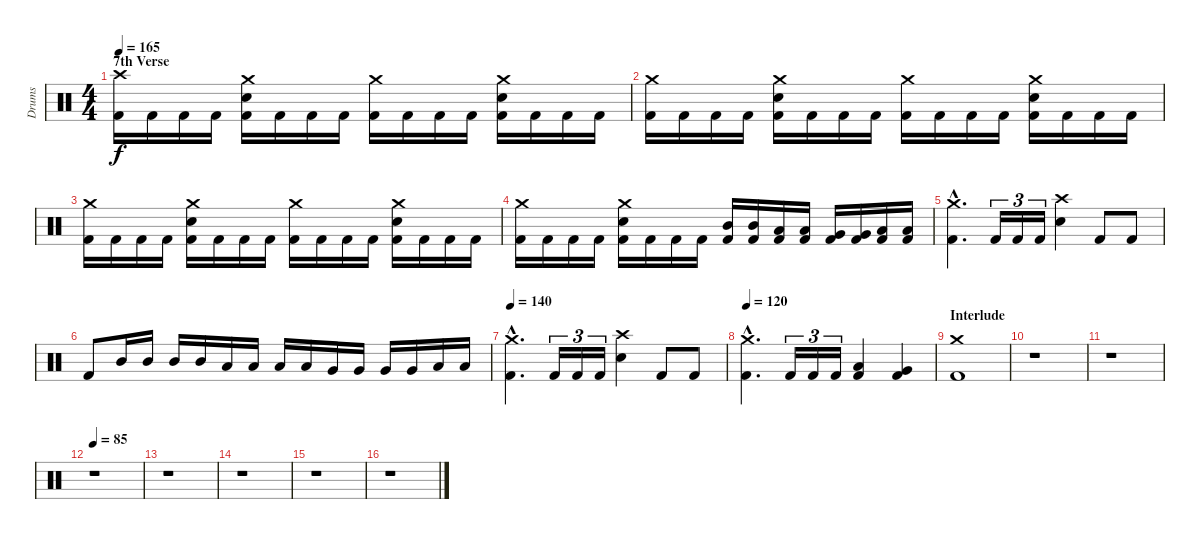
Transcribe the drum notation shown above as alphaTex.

\track ("Drums" "Drums") {instrument percussion}
\staff {score}
\articulation defaults
\ts (4 4)
\section ("" "7th Verse")
\tempo 165
\clef neutral
\ks c
("Kick (hit) 2" "Crash high (hit)").16{dy f} "Kick (hit) 2".16 "Kick (hit) 2".16 "Kick (hit) 2".16 ("Kick (hit) 2" "Electric Snare (hit)" "Crash medium (hit)").16 "Kick (hit) 2".16 "Kick (hit) 2".16 "Kick (hit) 2".16 ("Kick (hit) 2" "Crash medium (hit)").16 "Kick (hit) 2".16 "Kick (hit) 2".16 "Kick (hit) 2".16 ("Kick (hit) 2" "Electric Snare (hit)" "Crash medium (hit)").16 "Kick (hit) 2".16 "Kick (hit) 2".16 "Kick (hit) 2".16 |
("Kick (hit) 2" "Crash medium (hit)").16 "Kick (hit) 2".16 "Kick (hit) 2".16 "Kick (hit) 2".16 ("Kick (hit) 2" "Electric Snare (hit)" "Crash medium (hit)").16 "Kick (hit) 2".16 "Kick (hit) 2".16 "Kick (hit) 2".16 ("Kick (hit) 2" "Crash medium (hit)").16 "Kick (hit) 2".16 "Kick (hit) 2".16 "Kick (hit) 2".16 ("Kick (hit) 2" "Electric Snare (hit)" "Crash medium (hit)").16 "Kick (hit) 2".16 "Kick (hit) 2".16 "Kick (hit) 2".16 |
("Kick (hit) 2" "Crash medium (hit)").16 "Kick (hit) 2".16 "Kick (hit) 2".16 "Kick (hit) 2".16 ("Kick (hit) 2" "Electric Snare (hit)" "Crash medium (hit)").16 "Kick (hit) 2".16 "Kick (hit) 2".16 "Kick (hit) 2".16 ("Kick (hit) 2" "Crash medium (hit)").16 "Kick (hit) 2".16 "Kick (hit) 2".16 "Kick (hit) 2".16 ("Kick (hit) 2" "Electric Snare (hit)" "Crash medium (hit)").16 "Kick (hit) 2".16 "Kick (hit) 2".16 "Kick (hit) 2".16 |
("Kick (hit) 2" "Crash medium (hit)").16 "Kick (hit) 2".16 "Kick (hit) 2".16 "Kick (hit) 2".16 ("Kick (hit) 2" "Electric Snare (hit)" "Crash medium (hit)").16 "Kick (hit) 2".16 "Kick (hit) 2".16 "Kick (hit) 2".16 ("Kick (hit) 2" "Mid Tom (hit)").16 ("Kick (hit) 2" "Mid Tom (hit)").16 ("Kick (hit) 2" "Low Tom (hit)").16 ("Kick (hit) 2" "Low Tom (hit)").16 ("Kick (hit) 2" "Very Low Tom (hit)").16 ("Kick (hit) 2" "Very Low Tom (hit)").16 ("Kick (hit) 2" "Low Floor Tom (hit)").16 ("Kick (hit) 2" "Low Floor Tom (hit)").16 |
("Kick (hit) 2"{hac} "Crash medium (hit)"{hac}).4{d} "Kick (hit) 2".16{tu (3 2)} "Kick (hit) 2".16{tu (3 2)} "Kick (hit) 2".16{tu (3 2)} ("Electric Snare (hit)" "Crash high (hit)").4 "Kick (hit) 2".8 "Kick (hit) 2".8 |
"Kick (hit) 2".8 "Mid Tom (hit)".16 "Mid Tom (hit)".16 "Mid Tom (hit)".16 "Mid Tom (hit)".16 "Low Tom (hit)".16 "Low Tom (hit)".16 "Low Tom (hit)".16 "Low Tom (hit)".16 "Very Low Tom (hit)".16 "Very Low Tom (hit)".16 "Very Low Tom (hit)".16 "Very Low Tom (hit)".16 "Low Floor Tom (hit)".16 "Low Floor Tom (hit)".16 |
\tempo 140
("Kick (hit) 2"{hac} "Crash medium (hit)"{hac}).4{d} "Kick (hit) 2".16{tu (3 2)} "Kick (hit) 2".16{tu (3 2)} "Kick (hit) 2".16{tu (3 2)} ("Electric Snare (hit)" "Crash high (hit)").4 "Kick (hit) 2".8 "Kick (hit) 2".8 |
\tempo 120
("Kick (hit) 2"{hac} "Crash medium (hit)"{hac}).4{d} "Kick (hit) 2".16{tu (3 2)} "Kick (hit) 2".16{tu (3 2)} "Kick (hit) 2".16{tu (3 2)} ("Kick (hit) 2" "Low Tom (hit)").4 ("Kick (hit) 2" "Very Low Tom (hit)").4 |
\section ("" "Interlude")
("Kick (hit) 2" "Crash medium (hit)").1 |
r.1 |
r.1 |
\tempo 85
r.1 |
r.1 |
r.1 |
r.1 |
r.1
